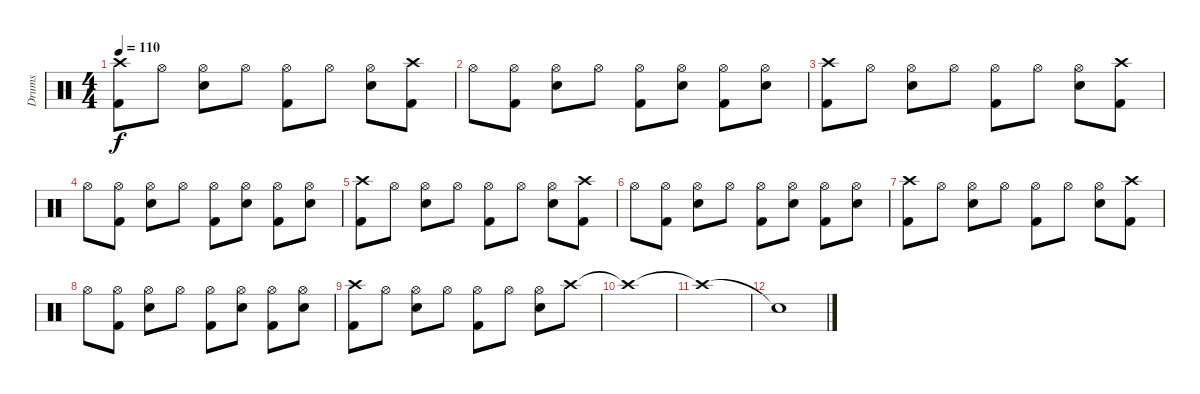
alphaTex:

\track ("Drums" "Drums") {instrument percussion}
\staff {score}
\articulation defaults
\ts (4 4)
\tempo 110
\clef neutral
\ks c
("Crash high (hit)" "Kick (hit) 2").8{dy f} "Hi-Hat (open)".8 ("Hi-Hat (open)" "Electric Snare (hit)").8 "Hi-Hat (open)".8 ("Hi-Hat (open)" "Kick (hit) 2").8 "Hi-Hat (open)".8 ("Hi-Hat (open)" "Electric Snare (hit)").8 ("Crash high (hit)" "Kick (hit) 2").8 |
"Hi-Hat (open)".8 ("Hi-Hat (open)" "Kick (hit) 2").8 ("Hi-Hat (open)" "Electric Snare (hit)").8 "Hi-Hat (open)".8 ("Hi-Hat (open)" "Kick (hit) 2").8 ("Hi-Hat (open)" "Electric Snare (hit)").8 ("Hi-Hat (open)" "Kick (hit) 2").8 ("Hi-Hat (open)" "Electric Snare (hit)").8 |
("Crash high (hit)" "Kick (hit) 2").8 "Hi-Hat (open)".8 ("Hi-Hat (open)" "Electric Snare (hit)").8 "Hi-Hat (open)".8 ("Hi-Hat (open)" "Kick (hit) 2").8 "Hi-Hat (open)".8 ("Hi-Hat (open)" "Electric Snare (hit)").8 ("Crash high (hit)" "Kick (hit) 2").8 |
"Hi-Hat (open)".8 ("Hi-Hat (open)" "Kick (hit) 2").8 ("Hi-Hat (open)" "Electric Snare (hit)").8 "Hi-Hat (open)".8 ("Hi-Hat (open)" "Kick (hit) 2").8 ("Hi-Hat (open)" "Electric Snare (hit)").8 ("Hi-Hat (open)" "Kick (hit) 2").8 ("Hi-Hat (open)" "Electric Snare (hit)").8 |
("Crash high (hit)" "Kick (hit) 2").8 "Hi-Hat (open)".8 ("Hi-Hat (open)" "Electric Snare (hit)").8 "Hi-Hat (open)".8 ("Hi-Hat (open)" "Kick (hit) 2").8 "Hi-Hat (open)".8 ("Hi-Hat (open)" "Electric Snare (hit)").8 ("Crash high (hit)" "Kick (hit) 2").8 |
"Hi-Hat (open)".8 ("Hi-Hat (open)" "Kick (hit) 2").8 ("Hi-Hat (open)" "Electric Snare (hit)").8 "Hi-Hat (open)".8 ("Hi-Hat (open)" "Kick (hit) 2").8 ("Hi-Hat (open)" "Electric Snare (hit)").8 ("Hi-Hat (open)" "Kick (hit) 2").8 ("Hi-Hat (open)" "Electric Snare (hit)").8 |
("Crash high (hit)" "Kick (hit) 2").8 "Hi-Hat (open)".8 ("Hi-Hat (open)" "Electric Snare (hit)").8 "Hi-Hat (open)".8 ("Hi-Hat (open)" "Kick (hit) 2").8 "Hi-Hat (open)".8 ("Hi-Hat (open)" "Electric Snare (hit)").8 ("Crash high (hit)" "Kick (hit) 2").8 |
"Hi-Hat (open)".8 ("Hi-Hat (open)" "Kick (hit) 2").8 ("Hi-Hat (open)" "Electric Snare (hit)").8 "Hi-Hat (open)".8 ("Hi-Hat (open)" "Kick (hit) 2").8 ("Hi-Hat (open)" "Electric Snare (hit)").8 ("Hi-Hat (open)" "Kick (hit) 2").8 ("Hi-Hat (open)" "Electric Snare (hit)").8 |
("Crash high (hit)" "Kick (hit) 2").8 "Hi-Hat (open)".8 ("Hi-Hat (open)" "Electric Snare (hit)").8 "Hi-Hat (open)".8 ("Hi-Hat (open)" "Kick (hit) 2").8 "Hi-Hat (open)".8 ("Hi-Hat (open)" "Electric Snare (hit)").8 "Crash high (hit)".8 |
"Crash high (hit)"{t}.1 |
"Crash high (hit)"{t}.1 |
"Snare (hit)"{t}.1
